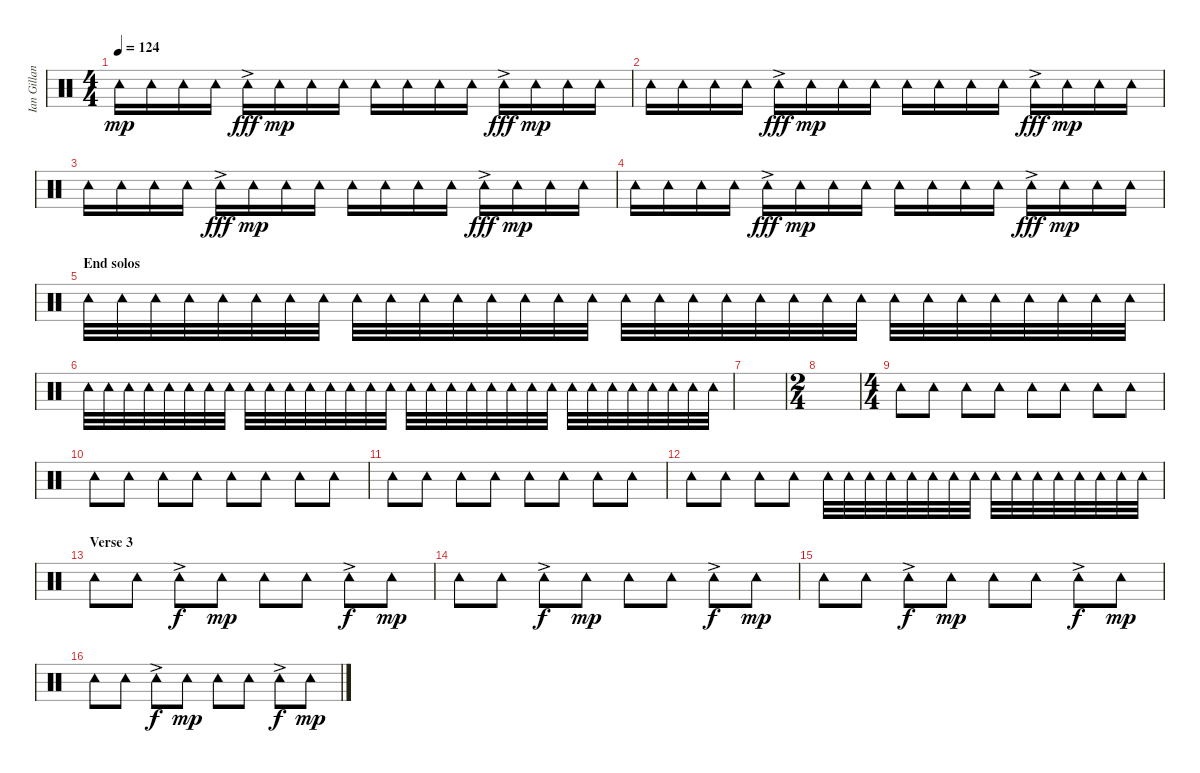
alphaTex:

\track ("Ian Gillan (percussions)" "Ian Gillan") {instrument percussion}
\staff {score}
\articulation defaults
\ts (4 4)
\tempo 124
\clef neutral
\ks c "Tambourine (hit)".16{dy mp} "Tambourine (hit)".16 "Tambourine (hit)".16 "Tambourine (hit)".16 "Tambourine (hit)"{ac}.16{dy fff} "Tambourine (hit)".16{dy mp} "Tambourine (hit)".16 "Tambourine (hit)".16 "Tambourine (hit)".16 "Tambourine (hit)".16 "Tambourine (hit)".16 "Tambourine (hit)".16 "Tambourine (hit)"{ac}.16{dy fff} "Tambourine (hit)".16{dy mp} "Tambourine (hit)".16 "Tambourine (hit)".16
|
"Tambourine (hit)".16 "Tambourine (hit)".16 "Tambourine (hit)".16 "Tambourine (hit)".16 "Tambourine (hit)"{ac}.16{dy fff} "Tambourine (hit)".16{dy mp} "Tambourine (hit)".16 "Tambourine (hit)".16 "Tambourine (hit)".16 "Tambourine (hit)".16 "Tambourine (hit)".16 "Tambourine (hit)".16 "Tambourine (hit)"{ac}.16{dy fff} "Tambourine (hit)".16{dy mp} "Tambourine (hit)".16 "Tambourine (hit)".16 |
"Tambourine (hit)".16 "Tambourine (hit)".16 "Tambourine (hit)".16 "Tambourine (hit)".16 "Tambourine (hit)"{ac}.16{dy fff} "Tambourine (hit)".16{dy mp} "Tambourine (hit)".16 "Tambourine (hit)".16 "Tambourine (hit)".16 "Tambourine (hit)".16 "Tambourine (hit)".16 "Tambourine (hit)".16 "Tambourine (hit)"{ac}.16{dy fff} "Tambourine (hit)".16{dy mp} "Tambourine (hit)".16 "Tambourine (hit)".16 |
"Tambourine (hit)".16 "Tambourine (hit)".16 "Tambourine (hit)".16 "Tambourine (hit)".16 "Tambourine (hit)"{ac}.16{dy fff} "Tambourine (hit)".16{dy mp} "Tambourine (hit)".16 "Tambourine (hit)".16 "Tambourine (hit)".16 "Tambourine (hit)".16 "Tambourine (hit)".16 "Tambourine (hit)".16 "Tambourine (hit)"{ac}.16{dy fff} "Tambourine (hit)".16{dy mp} "Tambourine (hit)".16 "Tambourine (hit)".16 |
\section ("" "End solos")
"Tambourine (hit)".32 "Tambourine (hit)".32 "Tambourine (hit)".32 "Tambourine (hit)".32 "Tambourine (hit)".32 "Tambourine (hit)".32 "Tambourine (hit)".32 "Tambourine (hit)".32 "Tambourine (hit)".32 "Tambourine (hit)".32 "Tambourine (hit)".32 "Tambourine (hit)".32 "Tambourine (hit)".32 "Tambourine (hit)".32 "Tambourine (hit)".32 "Tambourine (hit)".32 "Tambourine (hit)".32 "Tambourine (hit)".32 "Tambourine (hit)".32 "Tambourine (hit)".32 "Tambourine (hit)".32 "Tambourine (hit)".32 "Tambourine (hit)".32 "Tambourine (hit)".32 "Tambourine (hit)".32 "Tambourine (hit)".32 "Tambourine (hit)".32 "Tambourine (hit)".32 "Tambourine (hit)".32 "Tambourine (hit)".32 "Tambourine (hit)".32 "Tambourine (hit)".32 |
"Tambourine (hit)".32 "Tambourine (hit)".32 "Tambourine (hit)".32 "Tambourine (hit)".32 "Tambourine (hit)".32 "Tambourine (hit)".32 "Tambourine (hit)".32 "Tambourine (hit)".32 "Tambourine (hit)".32 "Tambourine (hit)".32 "Tambourine (hit)".32 "Tambourine (hit)".32 "Tambourine (hit)".32 "Tambourine (hit)".32 "Tambourine (hit)".32 "Tambourine (hit)".32 "Tambourine (hit)".32 "Tambourine (hit)".32 "Tambourine (hit)".32 "Tambourine (hit)".32 "Tambourine (hit)".32 "Tambourine (hit)".32 "Tambourine (hit)".32 "Tambourine (hit)".32 "Tambourine (hit)".32 "Tambourine (hit)".32 "Tambourine (hit)".32 "Tambourine (hit)".32 "Tambourine (hit)".32 "Tambourine (hit)".32 "Tambourine (hit)".32 "Tambourine (hit)".32 |
|
\ts (2 4)
|
\ts (4 4)
"Tambourine (hit)".8 "Tambourine (hit)".8 "Tambourine (hit)".8 "Tambourine (hit)".8 "Tambourine (hit)".8 "Tambourine (hit)".8 "Tambourine (hit)".8 "Tambourine (hit)".8 |
"Tambourine (hit)".8 "Tambourine (hit)".8 "Tambourine (hit)".8 "Tambourine (hit)".8 "Tambourine (hit)".8 "Tambourine (hit)".8 "Tambourine (hit)".8 "Tambourine (hit)".8 |
"Tambourine (hit)".8 "Tambourine (hit)".8 "Tambourine (hit)".8 "Tambourine (hit)".8 "Tambourine (hit)".8 "Tambourine (hit)".8 "Tambourine (hit)".8 "Tambourine (hit)".8 |
"Tambourine (hit)".8 "Tambourine (hit)".8 "Tambourine (hit)".8 "Tambourine (hit)".8 "Tambourine (hit)".32 "Tambourine (hit)".32 "Tambourine (hit)".32 "Tambourine (hit)".32 "Tambourine (hit)".32 "Tambourine (hit)".32 "Tambourine (hit)".32 "Tambourine (hit)".32 "Tambourine (hit)".32 "Tambourine (hit)".32 "Tambourine (hit)".32 "Tambourine (hit)".32 "Tambourine (hit)".32 "Tambourine (hit)".32 "Tambourine (hit)".32 "Tambourine (hit)".32 |
\section ("" "Verse 3")
"Tambourine (hit)".8 "Tambourine (hit)".8 "Tambourine (hit)"{ac}.8{dy f} "Tambourine (hit)".8{dy mp} "Tambourine (hit)".8 "Tambourine (hit)".8 "Tambourine (hit)"{ac}.8{dy f} "Tambourine (hit)".8{dy mp} |
"Tambourine (hit)".8 "Tambourine (hit)".8 "Tambourine (hit)"{ac}.8{dy f} "Tambourine (hit)".8{dy mp} "Tambourine (hit)".8 "Tambourine (hit)".8 "Tambourine (hit)"{ac}.8{dy f} "Tambourine (hit)".8{dy mp} |
"Tambourine (hit)".8 "Tambourine (hit)".8 "Tambourine (hit)"{ac}.8{dy f} "Tambourine (hit)".8{dy mp} "Tambourine (hit)".8 "Tambourine (hit)".8 "Tambourine (hit)"{ac}.8{dy f} "Tambourine (hit)".8{dy mp} |
"Tambourine (hit)".8 "Tambourine (hit)".8 "Tambourine (hit)"{ac}.8{dy f} "Tambourine (hit)".8{dy mp} "Tambourine (hit)".8 "Tambourine (hit)".8 "Tambourine (hit)"{ac}.8{dy f} "Tambourine (hit)".8{dy mp}
